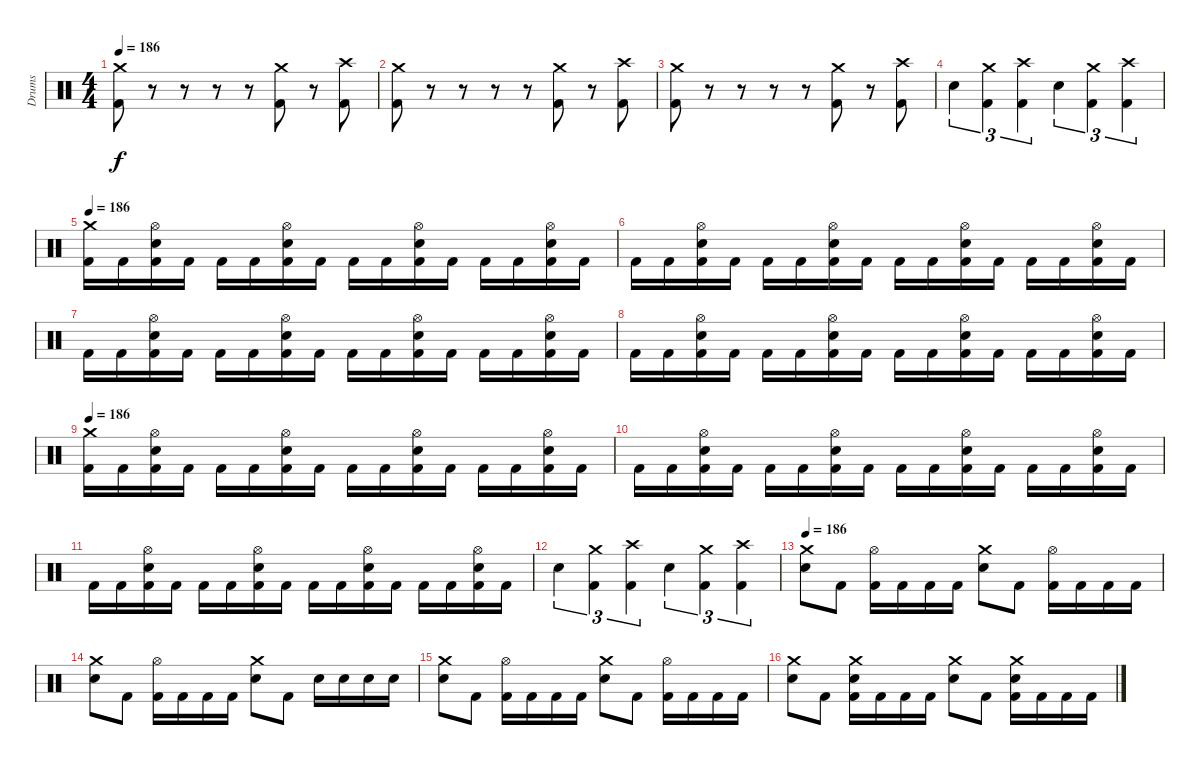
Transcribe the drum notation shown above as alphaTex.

\track ("Drums" "Drums") {instrument percussion}
\staff {score}
\articulation defaults
\ts (4 4)
\tempo 186
\clef neutral
\ks c
("Crash medium (hit)" "Kick (hit) 2").8{dy f} r.8 r.8 r.8 r.8 ("Crash medium (hit)" "Kick (hit) 2").8 r.8 ("Crash high (hit)" "Kick (hit) 2").8 |
("Crash medium (hit)" "Kick (hit) 2").8 r.8 r.8 r.8 r.8 ("Crash medium (hit)" "Kick (hit) 2").8 r.8 ("Crash high (hit)" "Kick (hit) 2").8 |
("Crash medium (hit)" "Kick (hit) 2").8 r.8 r.8 r.8 r.8 ("Crash medium (hit)" "Kick (hit) 2").8 r.8 ("Crash high (hit)" "Kick (hit) 2").8 |
"Snare (hit) 2".4{tu (3 2)} ("Crash medium (hit)" "Kick (hit) 2").4{tu (3 2)} ("Crash high (hit)" "Kick (hit) 2").4{tu (3 2)} "Snare (hit) 2".4{tu (3 2)} ("Crash medium (hit)" "Kick (hit) 2").4{tu (3 2)} ("Crash high (hit)" "Kick (hit) 2").4{tu (3 2)} |
\tempo 186
("Crash medium (hit)" "Kick (hit) 2").16 "Kick (hit) 2".16 ("Hi-Hat (open)" "Snare (hit) 2" "Kick (hit) 2").16 "Kick (hit) 2".16 "Kick (hit) 2".16 "Kick (hit) 2".16 ("Hi-Hat (open)" "Snare (hit) 2" "Kick (hit) 2").16 "Kick (hit) 2".16 "Kick (hit) 2".16 "Kick (hit) 2".16 ("Hi-Hat (open)" "Snare (hit) 2" "Kick (hit) 2").16 "Kick (hit) 2".16 "Kick (hit) 2".16 "Kick (hit) 2".16 ("Hi-Hat (open)" "Snare (hit) 2" "Kick (hit) 2").16 "Kick (hit) 2".16 |
"Kick (hit) 2".16 "Kick (hit) 2".16 ("Hi-Hat (open)" "Snare (hit) 2" "Kick (hit) 2").16 "Kick (hit) 2".16 "Kick (hit) 2".16 "Kick (hit) 2".16 ("Hi-Hat (open)" "Snare (hit) 2" "Kick (hit) 2").16 "Kick (hit) 2".16 "Kick (hit) 2".16 "Kick (hit) 2".16 ("Hi-Hat (open)" "Snare (hit) 2" "Kick (hit) 2").16 "Kick (hit) 2".16 "Kick (hit) 2".16 "Kick (hit) 2".16 ("Hi-Hat (open)" "Snare (hit) 2" "Kick (hit) 2").16 "Kick (hit) 2".16 |
"Kick (hit) 2".16 "Kick (hit) 2".16 ("Hi-Hat (open)" "Snare (hit) 2" "Kick (hit) 2").16 "Kick (hit) 2".16 "Kick (hit) 2".16 "Kick (hit) 2".16 ("Hi-Hat (open)" "Snare (hit) 2" "Kick (hit) 2").16 "Kick (hit) 2".16 "Kick (hit) 2".16 "Kick (hit) 2".16 ("Hi-Hat (open)" "Snare (hit) 2" "Kick (hit) 2").16 "Kick (hit) 2".16 "Kick (hit) 2".16 "Kick (hit) 2".16 ("Hi-Hat (open)" "Snare (hit) 2" "Kick (hit) 2").16 "Kick (hit) 2".16 |
"Kick (hit) 2".16 "Kick (hit) 2".16 ("Hi-Hat (open)" "Snare (hit) 2" "Kick (hit) 2").16 "Kick (hit) 2".16 "Kick (hit) 2".16 "Kick (hit) 2".16 ("Hi-Hat (open)" "Snare (hit) 2" "Kick (hit) 2").16 "Kick (hit) 2".16 "Kick (hit) 2".16 "Kick (hit) 2".16 ("Hi-Hat (open)" "Snare (hit) 2" "Kick (hit) 2").16 "Kick (hit) 2".16 "Kick (hit) 2".16 "Kick (hit) 2".16 ("Hi-Hat (open)" "Snare (hit) 2" "Kick (hit) 2").16 "Kick (hit) 2".16 |
\tempo 186
("Crash medium (hit)" "Kick (hit) 2").16 "Kick (hit) 2".16 ("Hi-Hat (open)" "Snare (hit) 2" "Kick (hit) 2").16 "Kick (hit) 2".16 "Kick (hit) 2".16 "Kick (hit) 2".16 ("Hi-Hat (open)" "Snare (hit) 2" "Kick (hit) 2").16 "Kick (hit) 2".16 "Kick (hit) 2".16 "Kick (hit) 2".16 ("Hi-Hat (open)" "Snare (hit) 2" "Kick (hit) 2").16 "Kick (hit) 2".16 "Kick (hit) 2".16 "Kick (hit) 2".16 ("Hi-Hat (open)" "Snare (hit) 2" "Kick (hit) 2").16 "Kick (hit) 2".16 |
"Kick (hit) 2".16 "Kick (hit) 2".16 ("Hi-Hat (open)" "Snare (hit) 2" "Kick (hit) 2").16 "Kick (hit) 2".16 "Kick (hit) 2".16 "Kick (hit) 2".16 ("Hi-Hat (open)" "Snare (hit) 2" "Kick (hit) 2").16 "Kick (hit) 2".16 "Kick (hit) 2".16 "Kick (hit) 2".16 ("Hi-Hat (open)" "Snare (hit) 2" "Kick (hit) 2").16 "Kick (hit) 2".16 "Kick (hit) 2".16 "Kick (hit) 2".16 ("Hi-Hat (open)" "Snare (hit) 2" "Kick (hit) 2").16 "Kick (hit) 2".16 |
"Kick (hit) 2".16 "Kick (hit) 2".16 ("Hi-Hat (open)" "Snare (hit) 2" "Kick (hit) 2").16 "Kick (hit) 2".16 "Kick (hit) 2".16 "Kick (hit) 2".16 ("Hi-Hat (open)" "Snare (hit) 2" "Kick (hit) 2").16 "Kick (hit) 2".16 "Kick (hit) 2".16 "Kick (hit) 2".16 ("Hi-Hat (open)" "Snare (hit) 2" "Kick (hit) 2").16 "Kick (hit) 2".16 "Kick (hit) 2".16 "Kick (hit) 2".16 ("Hi-Hat (open)" "Snare (hit) 2" "Kick (hit) 2").16 "Kick (hit) 2".16 |
"Snare (hit) 2".4{tu (3 2)} ("Crash medium (hit)" "Kick (hit) 2").4{tu (3 2)} ("Crash high (hit)" "Kick (hit) 2").4{tu (3 2)} "Snare (hit) 2".4{tu (3 2)} ("Crash medium (hit)" "Kick (hit) 2").4{tu (3 2)} ("Crash high (hit)" "Kick (hit) 2").4{tu (3 2)} |
\tempo 186
("Crash medium (hit)" "Snare (hit) 2").8 "Kick (hit) 2".8 ("Hi-Hat (open)" "Kick (hit) 2").16 "Kick (hit) 2".16 "Kick (hit) 2".16 "Kick (hit) 2".16 ("Crash medium (hit)" "Snare (hit) 2").8 "Kick (hit) 2".8 ("Hi-Hat (open)" "Kick (hit) 2").16 "Kick (hit) 2".16 "Kick (hit) 2".16 "Kick (hit) 2".16 |
("Crash medium (hit)" "Snare (hit) 2").8 "Kick (hit) 2".8 ("Hi-Hat (open)" "Kick (hit) 2").16 "Kick (hit) 2".16 "Kick (hit) 2".16 "Kick (hit) 2".16 ("Crash medium (hit)" "Snare (hit) 2").8 "Kick (hit) 2".8 "Snare (hit) 2".16 "Snare (hit) 2".16 "Snare (hit) 2".16 "Snare (hit) 2".16 |
("Crash medium (hit)" "Snare (hit) 2").8 "Kick (hit) 2".8 ("Hi-Hat (open)" "Kick (hit) 2").16 "Kick (hit) 2".16 "Kick (hit) 2".16 "Kick (hit) 2".16 ("Crash medium (hit)" "Snare (hit) 2").8 "Kick (hit) 2".8 ("Hi-Hat (open)" "Kick (hit) 2").16 "Kick (hit) 2".16 "Kick (hit) 2".16 "Kick (hit) 2".16 |
("Crash medium (hit)" "Snare (hit) 2").8 "Kick (hit) 2".8 ("Crash medium (hit)" "Snare (hit) 2" "Kick (hit) 2").16 "Kick (hit) 2".16 "Kick (hit) 2".16 "Kick (hit) 2".16 ("Crash medium (hit)" "Snare (hit) 2").8 "Kick (hit) 2".8 ("Crash medium (hit)" "Snare (hit) 2" "Kick (hit) 2").16 "Kick (hit) 2".16 "Kick (hit) 2".16 "Kick (hit) 2".16
